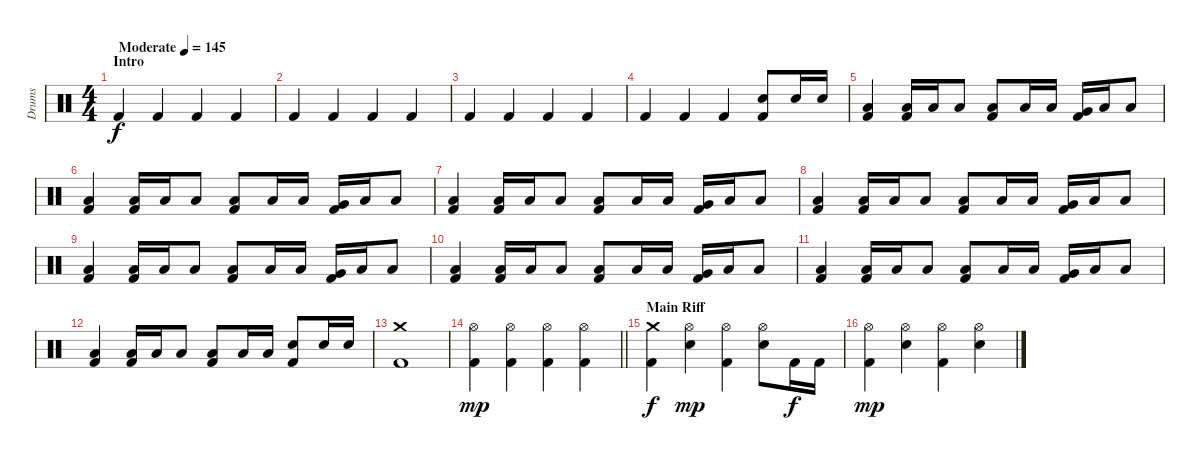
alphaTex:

\track ("Drums" "Drums") {instrument percussion}
\staff {score}
\articulation defaults
\ts (4 4)
\section ("" "Intro")
\tempo (145 "Moderate")
\clef neutral
\ks c "Kick (hit) 2".4{dy f} "Kick (hit) 2".4 "Kick (hit) 2".4 "Kick (hit) 2".4
|
"Kick (hit) 2".4 "Kick (hit) 2".4 "Kick (hit) 2".4 "Kick (hit) 2".4 |
"Kick (hit) 2".4 "Kick (hit) 2".4 "Kick (hit) 2".4 "Kick (hit) 2".4 |
"Kick (hit) 2".4 "Kick (hit) 2".4 "Kick (hit) 2".4 ("Snare (hit) 2" "Kick (hit) 2").8 "Snare (hit) 2".16 "Snare (hit) 2".16 |
("Low Floor Tom (hit)" "Kick (hit) 2").4 ("Low Floor Tom (hit)" "Kick (hit) 2").16 "Low Floor Tom (hit)".16 "Low Floor Tom (hit)".8 ("Low Floor Tom (hit)" "Kick (hit) 2").8 "Low Floor Tom (hit)".16 "Low Floor Tom (hit)".16 ("Very Low Tom (hit)" "Kick (hit) 2").16 "Low Floor Tom (hit)".16 "Low Floor Tom (hit)".8 |
("Low Floor Tom (hit)" "Kick (hit) 2").4 ("Low Floor Tom (hit)" "Kick (hit) 2").16 "Low Floor Tom (hit)".16 "Low Floor Tom (hit)".8 ("Low Floor Tom (hit)" "Kick (hit) 2").8 "Low Floor Tom (hit)".16 "Low Floor Tom (hit)".16 ("Very Low Tom (hit)" "Kick (hit) 2").16 "Low Floor Tom (hit)".16 "Low Floor Tom (hit)".8 |
("Low Floor Tom (hit)" "Kick (hit) 2").4 ("Low Floor Tom (hit)" "Kick (hit) 2").16 "Low Floor Tom (hit)".16 "Low Floor Tom (hit)".8 ("Low Floor Tom (hit)" "Kick (hit) 2").8 "Low Floor Tom (hit)".16 "Low Floor Tom (hit)".16 ("Very Low Tom (hit)" "Kick (hit) 2").16 "Low Floor Tom (hit)".16 "Low Floor Tom (hit)".8 |
("Low Floor Tom (hit)" "Kick (hit) 2").4 ("Low Floor Tom (hit)" "Kick (hit) 2").16 "Low Floor Tom (hit)".16 "Low Floor Tom (hit)".8 ("Low Floor Tom (hit)" "Kick (hit) 2").8 "Low Floor Tom (hit)".16 "Low Floor Tom (hit)".16 ("Very Low Tom (hit)" "Kick (hit) 2").16 "Low Floor Tom (hit)".16 "Low Floor Tom (hit)".8 |
("Low Floor Tom (hit)" "Kick (hit) 2").4 ("Low Floor Tom (hit)" "Kick (hit) 2").16 "Low Floor Tom (hit)".16 "Low Floor Tom (hit)".8 ("Low Floor Tom (hit)" "Kick (hit) 2").8 "Low Floor Tom (hit)".16 "Low Floor Tom (hit)".16 ("Very Low Tom (hit)" "Kick (hit) 2").16 "Low Floor Tom (hit)".16 "Low Floor Tom (hit)".8 |
("Low Floor Tom (hit)" "Kick (hit) 2").4 ("Low Floor Tom (hit)" "Kick (hit) 2").16 "Low Floor Tom (hit)".16 "Low Floor Tom (hit)".8 ("Low Floor Tom (hit)" "Kick (hit) 2").8 "Low Floor Tom (hit)".16 "Low Floor Tom (hit)".16 ("Very Low Tom (hit)" "Kick (hit) 2").16 "Low Floor Tom (hit)".16 "Low Floor Tom (hit)".8 |
("Low Floor Tom (hit)" "Kick (hit) 2").4 ("Low Floor Tom (hit)" "Kick (hit) 2").16 "Low Floor Tom (hit)".16 "Low Floor Tom (hit)".8 ("Low Floor Tom (hit)" "Kick (hit) 2").8 "Low Floor Tom (hit)".16 "Low Floor Tom (hit)".16 ("Very Low Tom (hit)" "Kick (hit) 2").16 "Low Floor Tom (hit)".16 "Low Floor Tom (hit)".8 |
("Low Floor Tom (hit)" "Kick (hit) 2").4 ("Low Floor Tom (hit)" "Kick (hit) 2").16 "Low Floor Tom (hit)".16 "Low Floor Tom (hit)".8 ("Low Floor Tom (hit)" "Kick (hit) 2").8 "Low Floor Tom (hit)".16 "Low Floor Tom (hit)".16 ("Snare (hit) 2" "Kick (hit) 2").8 "Snare (hit) 2".16 "Snare (hit) 2".16 |
("Crash medium (hit)" "Kick (hit) 2").1 |
\barLineRight lightlight
("Hi-Hat (open)" "Kick (hit) 2").4{dy mp} ("Hi-Hat (open)" "Kick (hit) 2").4 ("Hi-Hat (open)" "Kick (hit) 2").4 ("Hi-Hat (open)" "Kick (hit) 2").4 |
\section ("" "Main Riff")
("Crash medium (hit)" "Kick (hit) 2").4{dy f} ("Hi-Hat (open)" "Snare (hit) 2").4{dy mp} ("Hi-Hat (open)" "Kick (hit) 2").4 ("Hi-Hat (open)" "Snare (hit) 2").8 "Kick (hit) 2".16{dy f} "Kick (hit) 2".16 |
("Hi-Hat (open)" "Kick (hit) 2").4{dy mp} ("Hi-Hat (open)" "Snare (hit) 2").4 ("Hi-Hat (open)" "Kick (hit) 2").4 ("Hi-Hat (open)" "Snare (hit) 2").4
